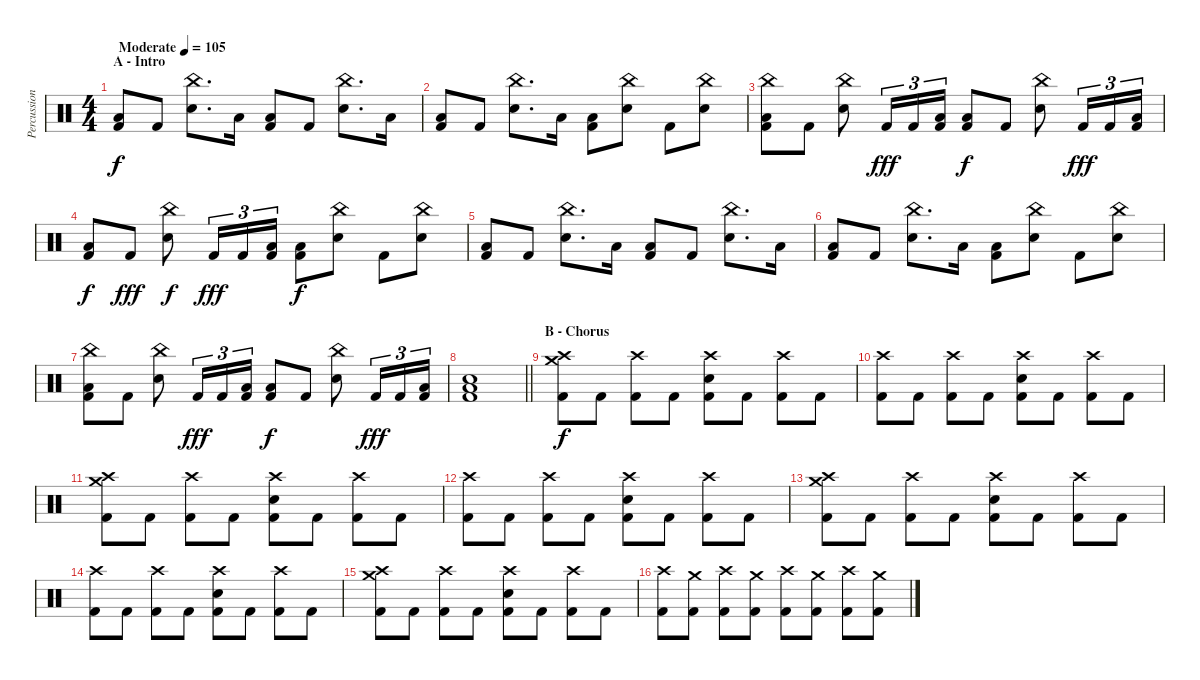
\track ("Percussions" "Percussion") {instrument percussion}
\staff {score}
\articulation defaults
\ts (4 4)
\section ("" "A - Intro")
\tempo (105 "Moderate")
\clef neutral
\ks c
("Low Tom (hit)" "Kick (hit) 2").8{dy f} "Kick (hit) 2".8 ("China (hit)" "Snare (hit) 2").8{d} "Low Tom (hit)".16 ("Low Tom (hit)" "Kick (hit) 2").8 "Kick (hit) 2".8 ("China (hit)" "Snare (hit) 2").8{d} "Low Tom (hit)".16 |
("Low Tom (hit)" "Kick (hit) 2").8 "Kick (hit) 2".8 ("China (hit)" "Snare (hit) 2").8{d} "Low Tom (hit)".16 ("Low Tom (hit)" "Kick (hit) 2").8 ("China (hit)" "Snare (hit) 2").8 "Kick (hit) 2".8 ("China (hit)" "Snare (hit) 2").8 |
("China (hit)" "Low Tom (hit)" "Kick (hit) 2").8 "Kick (hit) 2".8 ("China (hit)" "Snare (hit) 2").8 "Kick (hit) 2".16{tu (3 2) dy fff} "Kick (hit) 2".16{tu (3 2)} ("Low Tom (hit)" "Kick (hit) 2").16{tu (3 2)} ("Low Tom (hit)" "Kick (hit) 2").8{dy f} "Kick (hit) 2".8 ("China (hit)" "Snare (hit) 2").8 "Kick (hit) 2".16{tu (3 2) dy fff} "Kick (hit) 2".16{tu (3 2)} ("Low Tom (hit)" "Kick (hit) 2").16{tu (3 2)} |
("Low Tom (hit)" "Kick (hit) 2").8{dy f} "Kick (hit) 2".8{dy fff} ("China (hit)" "Snare (hit) 2").8{dy f} "Kick (hit) 2".16{tu (3 2) dy fff} "Kick (hit) 2".16{tu (3 2)} ("Low Tom (hit)" "Kick (hit) 2").16{tu (3 2)} ("Low Tom (hit)" "Kick (hit) 2").8{dy f} ("China (hit)" "Snare (hit) 2").8 "Kick (hit) 2".8 ("China (hit)" "Snare (hit) 2").8 |
("Low Tom (hit)" "Kick (hit) 2").8 "Kick (hit) 2".8 ("China (hit)" "Snare (hit) 2").8{d} "Low Tom (hit)".16 ("Low Tom (hit)" "Kick (hit) 2").8 "Kick (hit) 2".8 ("China (hit)" "Snare (hit) 2").8{d} "Low Tom (hit)".16 |
("Low Tom (hit)" "Kick (hit) 2").8 "Kick (hit) 2".8 ("China (hit)" "Snare (hit) 2").8{d} "Low Tom (hit)".16 ("Low Tom (hit)" "Kick (hit) 2").8 ("China (hit)" "Snare (hit) 2").8 "Kick (hit) 2".8 ("China (hit)" "Snare (hit) 2").8 |
("China (hit)" "Low Tom (hit)" "Kick (hit) 2").8 "Kick (hit) 2".8 ("China (hit)" "Snare (hit) 2").8 "Kick (hit) 2".16{tu (3 2) dy fff} "Kick (hit) 2".16{tu (3 2)} ("Low Tom (hit)" "Kick (hit) 2").16{tu (3 2)} ("Low Tom (hit)" "Kick (hit) 2").8{dy f} "Kick (hit) 2".8 ("China (hit)" "Snare (hit) 2").8 "Kick (hit) 2".16{tu (3 2) dy fff} "Kick (hit) 2".16{tu (3 2)} ("Low Tom (hit)" "Kick (hit) 2").16{tu (3 2)} |
\barLineRight lightlight
("Snare (hit) 2" "Low Tom (hit)" "Kick (hit) 2").1 |
\section ("" "B - Chorus")
("Crash medium (hit)" "Crash high (hit)" "Kick (hit) 2").8{dy f} "Kick (hit) 2".8 ("Crash high (hit)" "Kick (hit) 2").8 "Kick (hit) 2".8 ("Crash high (hit)" "Snare (hit) 2" "Kick (hit) 2").8 "Kick (hit) 2".8 ("Crash high (hit)" "Kick (hit) 2").8 "Kick (hit) 2".8 |
("Crash high (hit)" "Kick (hit) 2").8 "Kick (hit) 2".8 ("Crash high (hit)" "Kick (hit) 2").8 "Kick (hit) 2".8 ("Crash high (hit)" "Snare (hit) 2" "Kick (hit) 2").8 "Kick (hit) 2".8 ("Crash high (hit)" "Kick (hit) 2").8 "Kick (hit) 2".8 |
("Crash medium (hit)" "Crash high (hit)" "Kick (hit) 2").8 "Kick (hit) 2".8 ("Crash high (hit)" "Kick (hit) 2").8 "Kick (hit) 2".8 ("Crash high (hit)" "Snare (hit) 2" "Kick (hit) 2").8 "Kick (hit) 2".8 ("Crash high (hit)" "Kick (hit) 2").8 "Kick (hit) 2".8 |
("Crash high (hit)" "Kick (hit) 2").8 "Kick (hit) 2".8 ("Crash high (hit)" "Kick (hit) 2").8 "Kick (hit) 2".8 ("Crash high (hit)" "Snare (hit) 2" "Kick (hit) 2").8 "Kick (hit) 2".8 ("Crash high (hit)" "Kick (hit) 2").8 "Kick (hit) 2".8 |
("Crash medium (hit)" "Crash high (hit)" "Kick (hit) 2").8 "Kick (hit) 2".8 ("Crash high (hit)" "Kick (hit) 2").8 "Kick (hit) 2".8 ("Crash high (hit)" "Snare (hit) 2" "Kick (hit) 2").8 "Kick (hit) 2".8 ("Crash high (hit)" "Kick (hit) 2").8 "Kick (hit) 2".8 |
("Crash high (hit)" "Kick (hit) 2").8 "Kick (hit) 2".8 ("Crash high (hit)" "Kick (hit) 2").8 "Kick (hit) 2".8 ("Crash high (hit)" "Snare (hit) 2" "Kick (hit) 2").8 "Kick (hit) 2".8 ("Crash high (hit)" "Kick (hit) 2").8 "Kick (hit) 2".8 |
("Crash medium (hit)" "Crash high (hit)" "Kick (hit) 2").8 "Kick (hit) 2".8 ("Crash high (hit)" "Kick (hit) 2").8 "Kick (hit) 2".8 ("Crash high (hit)" "Snare (hit) 2" "Kick (hit) 2").8 "Kick (hit) 2".8 ("Crash high (hit)" "Kick (hit) 2").8 "Kick (hit) 2".8 |
("Crash high (hit)" "Kick (hit) 2").8 ("Crash medium (hit)" "Kick (hit) 2").8 ("Crash high (hit)" "Kick (hit) 2").8 ("Crash medium (hit)" "Kick (hit) 2").8 ("Crash high (hit)" "Kick (hit) 2").8 ("Crash medium (hit)" "Kick (hit) 2").8 ("Crash high (hit)" "Kick (hit) 2").8 ("Crash medium (hit)" "Kick (hit) 2").8
